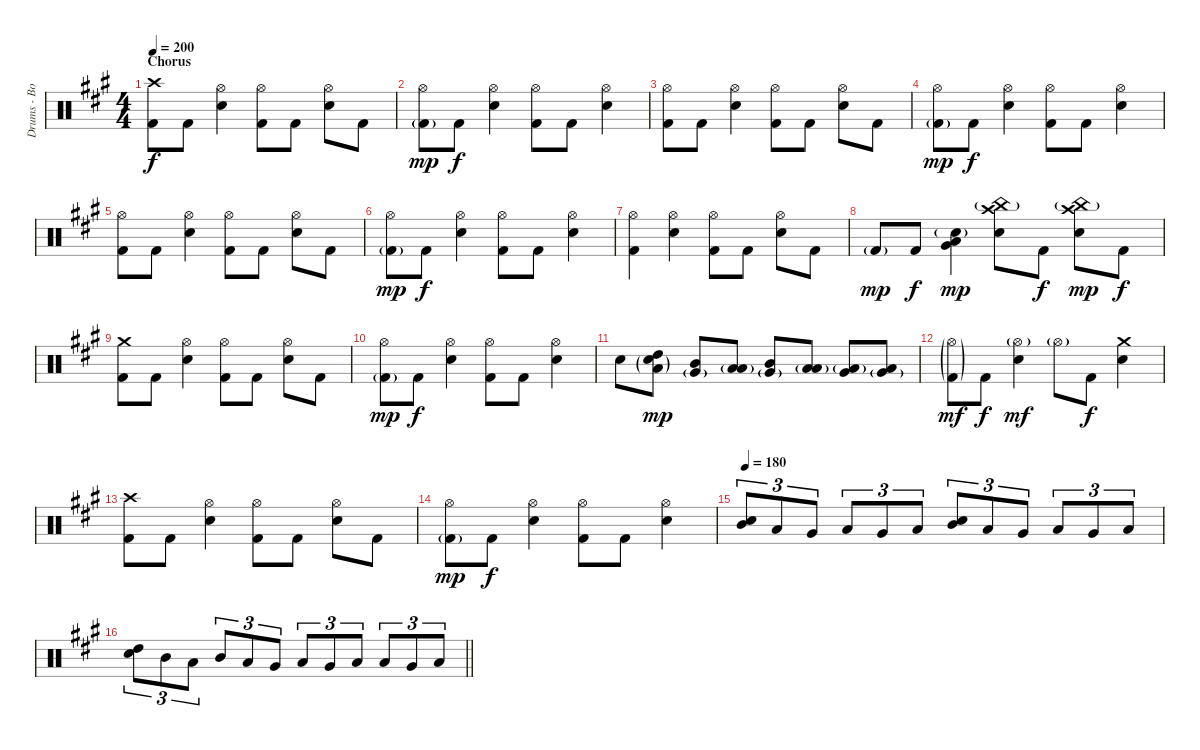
\track ("Drums - Bob Bryar" "Drums - Bo") {instrument percussion}
\staff {score}
\articulation defaults
\ts (4 4)
\section ("" "Chorus")
\tempo 200
\clef neutral
\ks a
("Kick (hit) 2" "Crash high (hit)").8{dy f} "Kick (hit) 2".8 ("Electric Snare (hit)" "Hi-Hat (open)").4 ("Kick (hit) 2" "Hi-Hat (open)").8 "Kick (hit) 2".8 ("Electric Snare (hit)" "Hi-Hat (open)").8 "Kick (hit) 2".8 |
("Kick (hit) 2"{g} "Hi-Hat (open)").8{dy mp} "Kick (hit) 2".8{dy f} ("Electric Snare (hit)" "Hi-Hat (open)").4 ("Kick (hit) 2" "Hi-Hat (open)").8 "Kick (hit) 2".8 ("Electric Snare (hit)" "Hi-Hat (open)").4 |
("Kick (hit) 2" "Hi-Hat (open)").8 "Kick (hit) 2".8 ("Electric Snare (hit)" "Hi-Hat (open)").4 ("Kick (hit) 2" "Hi-Hat (open)").8 "Kick (hit) 2".8 ("Electric Snare (hit)" "Hi-Hat (open)").8 "Kick (hit) 2".8 |
("Kick (hit) 2"{g} "Hi-Hat (open)").8{dy mp} "Kick (hit) 2".8{dy f} ("Electric Snare (hit)" "Hi-Hat (open)").4 ("Kick (hit) 2" "Hi-Hat (open)").8 "Kick (hit) 2".8 ("Electric Snare (hit)" "Hi-Hat (open)").4 |
("Kick (hit) 2" "Hi-Hat (open)").8 "Kick (hit) 2".8 ("Electric Snare (hit)" "Hi-Hat (open)").4 ("Kick (hit) 2" "Hi-Hat (open)").8 "Kick (hit) 2".8 ("Electric Snare (hit)" "Hi-Hat (open)").8 "Kick (hit) 2".8 |
("Kick (hit) 2"{g} "Hi-Hat (open)").8{dy mp} "Kick (hit) 2".8{dy f} ("Electric Snare (hit)" "Hi-Hat (open)").4 ("Kick (hit) 2" "Hi-Hat (open)").8 "Kick (hit) 2".8 ("Electric Snare (hit)" "Hi-Hat (open)").4 |
("Kick (hit) 2" "Hi-Hat (open)").4 ("Electric Snare (hit)" "Hi-Hat (open)").4 ("Kick (hit) 2" "Hi-Hat (open)").8 "Kick (hit) 2".8 ("Electric Snare (hit)" "Hi-Hat (open)").8 "Kick (hit) 2".8 |
"Kick (hit) 2"{g}.8{dy mp} "Kick (hit) 2".8{dy f} ("Electric Snare (hit)"{g} "Very Low Tom (hit)" "Low Floor Tom (hit)").4{dy mp} ("Electric Snare (hit)" "Crash high (hit)" "China (hit)"{g}).8 "Kick (hit) 2".8{dy f} ("Electric Snare (hit)" "Crash high (hit)" "China (hit)"{g}).8{dy mp} "Kick (hit) 2".8{dy f} |
("Kick (hit) 2" "Crash medium (hit)").8 "Kick (hit) 2".8 ("Electric Snare (hit)" "Hi-Hat (open)").4 ("Kick (hit) 2" "Hi-Hat (open)").8 "Kick (hit) 2".8 ("Electric Snare (hit)" "Hi-Hat (open)").8 "Kick (hit) 2".8 |
("Kick (hit) 2"{g} "Hi-Hat (open)").8{dy mp} "Kick (hit) 2".8{dy f} ("Electric Snare (hit)" "Hi-Hat (open)").4 ("Kick (hit) 2" "Hi-Hat (open)").8 "Kick (hit) 2".8 ("Electric Snare (hit)" "Hi-Hat (open)").4 |
"Electric Snare (hit)".8 ("Electric Snare (hit)"{g} "High Tom (hit)" "Low Tom (hit)"{g}).8{dy mp} ("Mid Tom (hit)" "Very Low Tom (hit)"{g}).8 ("Low Tom (hit)" "Low Floor Tom (hit)"{g}).8 ("Mid Tom (hit)" "Very Low Tom (hit)"{g}).8 ("Low Tom (hit)" "Low Floor Tom (hit)"{g}).8 ("Very Low Tom (hit)" "Low Tom (hit)"{g}).8 ("Low Floor Tom (hit)" "Very Low Tom (hit)"{g}).8 |
("Kick (hit) 2"{g} "Hi-Hat (open)"{g}).8{dy mf} "Kick (hit) 2".8{dy f} ("Electric Snare (hit)" "Hi-Hat (open)"{g}).4{dy mf} "Hi-Hat (open)"{g}.8 "Kick (hit) 2".8{dy f} ("Electric Snare (hit)" "Crash medium (hit)").4 |
("Kick (hit) 2" "Crash high (hit)").8 "Kick (hit) 2".8 ("Electric Snare (hit)" "Hi-Hat (open)").4 ("Kick (hit) 2" "Hi-Hat (open)").8 "Kick (hit) 2".8 ("Electric Snare (hit)" "Hi-Hat (open)").8 "Kick (hit) 2".8 |
("Kick (hit) 2"{g} "Hi-Hat (open)").8{dy mp} "Kick (hit) 2".8{dy f} ("Electric Snare (hit)" "Hi-Hat (open)").4 ("Kick (hit) 2" "Hi-Hat (open)").8 "Kick (hit) 2".8 ("Electric Snare (hit)" "Hi-Hat (open)").4 |
\tempo 180
("Electric Snare (hit)" "Mid Tom (hit)").8{tu (3 2)} "Low Tom (hit)".8{tu (3 2)} "Very Low Tom (hit)".8{tu (3 2)} "Low Tom (hit)".8{tu (3 2)} "Very Low Tom (hit)".8{tu (3 2)} "Low Floor Tom (hit)".8{tu (3 2)} ("Electric Snare (hit)" "Mid Tom (hit)").8{tu (3 2)} "Low Tom (hit)".8{tu (3 2)} "Very Low Tom (hit)".8{tu (3 2)} "Low Tom (hit)".8{tu (3 2)} "Very Low Tom (hit)".8{tu (3 2)} "Low Floor Tom (hit)".8{tu (3 2)} |
\barLineRight lightlight
("Electric Snare (hit)" "High Tom (hit)").8{tu (3 2)} "Mid Tom (hit)".8{tu (3 2)} "Low Tom (hit)".8{tu (3 2)} "Mid Tom (hit)".8{tu (3 2)} "Low Tom (hit)".8{tu (3 2)} "Very Low Tom (hit)".8{tu (3 2)} "Low Tom (hit)".8{tu (3 2)} "Very Low Tom (hit)".8{tu (3 2)} "Low Floor Tom (hit)".8{tu (3 2)} "Low Tom (hit)".8{tu (3 2)} "Very Low Tom (hit)".8{tu (3 2)} "Low Floor Tom (hit)".8{tu (3 2)}
